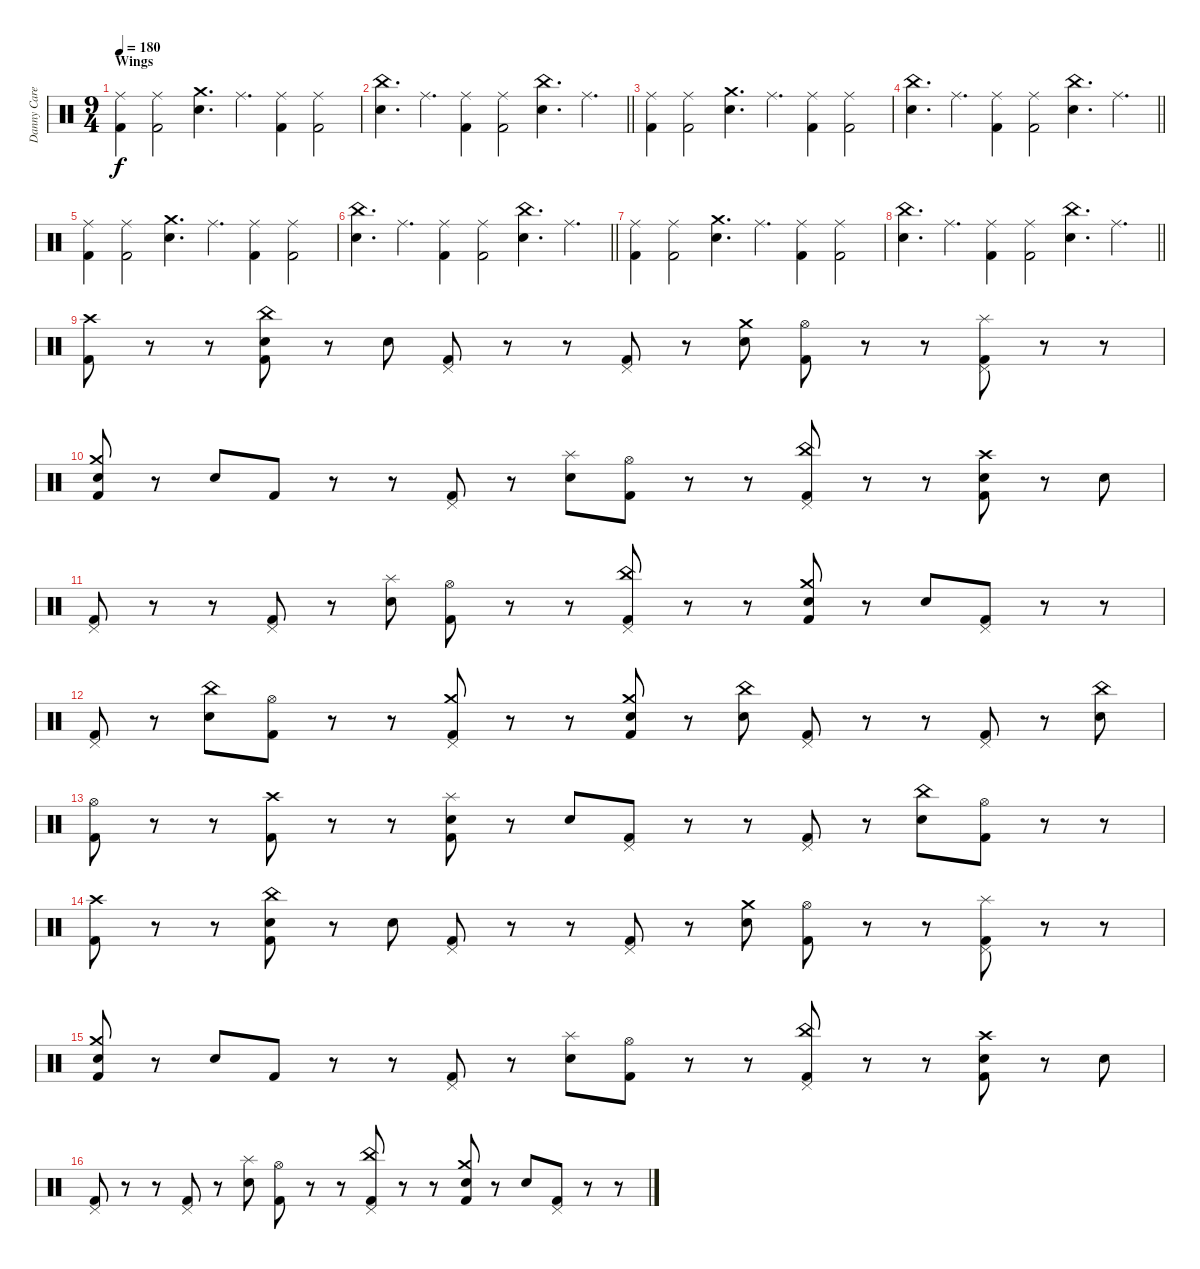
\track ("Danny Carey" "Danny Care") {instrument percussion}
\staff {score}
\articulation defaults
\ts (9 4)
\section ("" "Wings")
\tempo 180
\clef neutral
\ks c
("Ride (middle)" "Kick (hit) 2").4{dy f} ("Ride (middle)" "Kick (hit) 2").2 ("Crash medium (hit)" "Electric Snare (hit)").4{d} "Ride (middle)".4{d} ("Ride (middle)" "Kick (hit) 2").4 ("Ride (middle)" "Kick (hit) 2").2 |
\barLineRight lightlight
("China (hit)" "Electric Snare (hit)").4{d} "Ride (middle)".4{d} ("Ride (middle)" "Kick (hit) 2").4 ("Ride (middle)" "Kick (hit) 2").2 ("China (hit)" "Electric Snare (hit)").4{d} "Ride (middle)".4{d} |
("Ride (middle)" "Kick (hit) 2").4 ("Ride (middle)" "Kick (hit) 2").2 ("Crash medium (hit)" "Electric Snare (hit)").4{d} "Ride (middle)".4{d} ("Ride (middle)" "Kick (hit) 2").4 ("Ride (middle)" "Kick (hit) 2").2 |
\barLineRight lightlight
("China (hit)" "Electric Snare (hit)").4{d} "Ride (middle)".4{d} ("Ride (middle)" "Kick (hit) 2").4 ("Ride (middle)" "Kick (hit) 2").2 ("China (hit)" "Electric Snare (hit)").4{d} "Ride (middle)".4{d} |
("Ride (middle)" "Kick (hit) 2").4 ("Ride (middle)" "Kick (hit) 2").2 ("Crash medium (hit)" "Electric Snare (hit)").4{d} "Ride (middle)".4{d} ("Ride (middle)" "Kick (hit) 2").4 ("Ride (middle)" "Kick (hit) 2").2 |
\barLineRight lightlight
("China (hit)" "Electric Snare (hit)").4{d} "Ride (middle)".4{d} ("Ride (middle)" "Kick (hit) 2").4 ("Ride (middle)" "Kick (hit) 2").2 ("China (hit)" "Electric Snare (hit)").4{d} "Ride (middle)".4{d} |
("Ride (middle)" "Kick (hit) 2").4 ("Ride (middle)" "Kick (hit) 2").2 ("Crash medium (hit)" "Electric Snare (hit)").4{d} "Ride (middle)".4{d} ("Ride (middle)" "Kick (hit) 2").4 ("Ride (middle)" "Kick (hit) 2").2 |
\barLineRight lightlight
("China (hit)" "Electric Snare (hit)").4{d} "Ride (middle)".4{d} ("Ride (middle)" "Kick (hit) 2").4 ("Ride (middle)" "Kick (hit) 2").2 ("China (hit)" "Electric Snare (hit)").4{d} "Ride (middle)".4{d} |
("Crash high (hit)" "Kick (hit) 2").8 r.8 r.8 ("China (hit)" "Electric Snare (hit)" "Kick (hit) 2").8 r.8 "Electric Snare (hit)".8 ("Pedal Hi-Hat (hit)" "Kick (hit) 2").8 r.8 r.8 ("Pedal Hi-Hat (hit)" "Kick (hit) 2").8 r.8 ("Crash medium (hit)" "Electric Snare (hit)").8 ("Hi-Hat (open)" "Kick (hit) 2").8 r.8 r.8 ("Splash (hit)" "Pedal Hi-Hat (hit)" "Kick (hit) 2").8 r.8 r.8 |
("Crash medium (hit)" "Electric Snare (hit)" "Kick (hit) 2").8 r.8 "Electric Snare (hit)".8 "Kick (hit) 2".8 r.8 r.8 ("Pedal Hi-Hat (hit)" "Kick (hit) 2").8 r.8 ("Splash (hit)" "Electric Snare (hit)").8 ("Hi-Hat (open)" "Kick (hit) 2").8 r.8 r.8 ("China (hit)" "Pedal Hi-Hat (hit)" "Kick (hit) 2").8 r.8 r.8 ("Crash high (hit)" "Electric Snare (hit)" "Kick (hit) 2").8 r.8 "Electric Snare (hit)".8 |
("Pedal Hi-Hat (hit)" "Kick (hit) 2").8 r.8 r.8 ("Pedal Hi-Hat (hit)" "Kick (hit) 2").8 r.8 ("Splash (hit)" "Electric Snare (hit)").8 ("Hi-Hat (open)" "Kick (hit) 2").8 r.8 r.8 ("China (hit)" "Pedal Hi-Hat (hit)" "Kick (hit) 2").8 r.8 r.8 ("Crash medium (hit)" "Electric Snare (hit)" "Kick (hit) 2").8 r.8 "Electric Snare (hit)".8 ("Pedal Hi-Hat (hit)" "Kick (hit) 2").8 r.8 r.8 |
("Pedal Hi-Hat (hit)" "Kick (hit) 2").8 r.8 ("China (hit)" "Electric Snare (hit)").8 ("Hi-Hat (open)" "Kick (hit) 2").8 r.8 r.8 ("Crash medium (hit)" "Pedal Hi-Hat (hit)" "Kick (hit) 2").8 r.8 r.8 ("Crash medium (hit)" "Electric Snare (hit)" "Kick (hit) 2").8 r.8 ("China (hit)" "Electric Snare (hit)").8 ("Pedal Hi-Hat (hit)" "Kick (hit) 2").8 r.8 r.8 ("Pedal Hi-Hat (hit)" "Kick (hit) 2").8 r.8 ("China (hit)" "Electric Snare (hit)").8 |
("Hi-Hat (open)" "Kick (hit) 2").8 r.8 r.8 ("Crash high (hit)" "Kick (hit) 2").8 r.8 r.8 ("Splash (hit)" "Electric Snare (hit)" "Kick (hit) 2").8 r.8 "Electric Snare (hit)".8 ("Pedal Hi-Hat (hit)" "Kick (hit) 2").8 r.8 r.8 ("Pedal Hi-Hat (hit)" "Kick (hit) 2").8 r.8 ("China (hit)" "Electric Snare (hit)").8 ("Hi-Hat (open)" "Kick (hit) 2").8 r.8 r.8 |
("Crash high (hit)" "Kick (hit) 2").8 r.8 r.8 ("China (hit)" "Electric Snare (hit)" "Kick (hit) 2").8 r.8 "Electric Snare (hit)".8 ("Pedal Hi-Hat (hit)" "Kick (hit) 2").8 r.8 r.8 ("Pedal Hi-Hat (hit)" "Kick (hit) 2").8 r.8 ("Crash medium (hit)" "Electric Snare (hit)").8 ("Hi-Hat (open)" "Kick (hit) 2").8 r.8 r.8 ("Splash (hit)" "Pedal Hi-Hat (hit)" "Kick (hit) 2").8 r.8 r.8 |
("Crash medium (hit)" "Electric Snare (hit)" "Kick (hit) 2").8 r.8 "Electric Snare (hit)".8 "Kick (hit) 2".8 r.8 r.8 ("Pedal Hi-Hat (hit)" "Kick (hit) 2").8 r.8 ("Splash (hit)" "Electric Snare (hit)").8 ("Hi-Hat (open)" "Kick (hit) 2").8 r.8 r.8 ("China (hit)" "Pedal Hi-Hat (hit)" "Kick (hit) 2").8 r.8 r.8 ("Crash high (hit)" "Electric Snare (hit)" "Kick (hit) 2").8 r.8 "Electric Snare (hit)".8 |
("Pedal Hi-Hat (hit)" "Kick (hit) 2").8 r.8 r.8 ("Pedal Hi-Hat (hit)" "Kick (hit) 2").8 r.8 ("Splash (hit)" "Electric Snare (hit)").8 ("Hi-Hat (open)" "Kick (hit) 2").8 r.8 r.8 ("China (hit)" "Pedal Hi-Hat (hit)" "Kick (hit) 2").8 r.8 r.8 ("Crash medium (hit)" "Electric Snare (hit)" "Kick (hit) 2").8 r.8 "Electric Snare (hit)".8 ("Pedal Hi-Hat (hit)" "Kick (hit) 2").8 r.8 r.8
